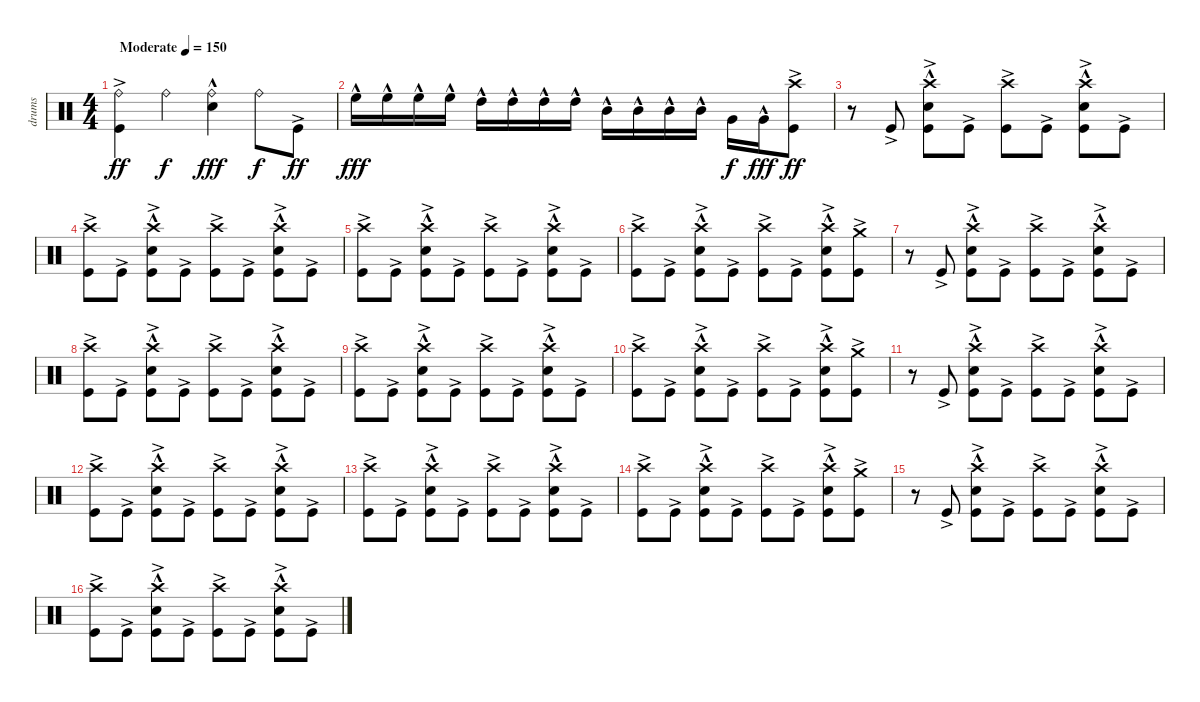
\track ("drums" "drums") {instrument percussion}
\staff {score}
\articulation defaults
\ts (4 4)
\tempo (150 "Moderate")
\clef neutral
\ks c
("Ride (bell)" "Kick (hit)"{ac}).4{dy ff} "Ride (bell)".4{dy f} ("Ride (bell)" "Snare (hit) 2"{hac}).4{dy fff} "Ride (bell)".8{dy f} "Kick (hit)"{ac}.8{dy ff} |
"High Floor Tom (hit)"{hac}.16{dy fff} "High Floor Tom (hit)"{hac}.16 "High Floor Tom (hit)"{hac}.16 "High Floor Tom (hit)"{hac}.16 "High Tom (hit)"{hac}.16 "High Tom (hit)"{hac}.16 "High Tom (hit)"{hac}.16 "High Tom (hit)"{hac}.16 "Mid Tom (hit)"{hac}.16 "Mid Tom (hit)"{hac}.16 "Mid Tom (hit)"{hac}.16 "Mid Tom (hit)"{hac}.16 "Very Low Tom (hit)".16{dy f} "Very Low Tom (hit)"{hac}.16{dy fff} ("Crash high (hit)" "Kick (hit)"{ac}).8{dy ff} |
r.8 "Kick (hit)"{ac}.8 ("Crash high (hit)" "Snare (hit) 2"{hac} "Kick (hit)"{ac}).8 "Kick (hit)"{ac}.8 ("Crash high (hit)" "Kick (hit)"{ac}).8 "Kick (hit)"{ac}.8 ("Crash high (hit)" "Snare (hit) 2"{hac} "Kick (hit)"{ac}).8 "Kick (hit)"{ac}.8 |
("Crash high (hit)" "Kick (hit)"{ac}).8 "Kick (hit)"{ac}.8 ("Crash high (hit)" "Snare (hit) 2"{hac} "Kick (hit)"{ac}).8 "Kick (hit)"{ac}.8 ("Crash high (hit)" "Kick (hit)"{ac}).8 "Kick (hit)"{ac}.8 ("Crash high (hit)" "Snare (hit) 2"{hac} "Kick (hit)"{ac}).8 "Kick (hit)"{ac}.8 |
("Crash high (hit)" "Kick (hit)"{ac}).8 "Kick (hit)"{ac}.8 ("Crash high (hit)" "Snare (hit) 2"{hac} "Kick (hit)"{ac}).8 "Kick (hit)"{ac}.8 ("Crash high (hit)" "Kick (hit)"{ac}).8 "Kick (hit)"{ac}.8 ("Crash high (hit)" "Snare (hit) 2"{hac} "Kick (hit)"{ac}).8 "Kick (hit)"{ac}.8 |
("Crash high (hit)" "Kick (hit)"{ac}).8 "Kick (hit)"{ac}.8 ("Crash high (hit)" "Snare (hit) 2"{hac} "Kick (hit)"{ac}).8 "Kick (hit)"{ac}.8 ("Crash high (hit)" "Kick (hit)"{ac}).8 "Kick (hit)"{ac}.8 ("Crash high (hit)" "Snare (hit) 2"{hac} "Kick (hit)"{ac}).8 ("Crash medium (hit)" "Kick (hit)"{ac}).8 |
r.8 "Kick (hit)"{ac}.8 ("Crash high (hit)" "Snare (hit) 2"{hac} "Kick (hit)"{ac}).8 "Kick (hit)"{ac}.8 ("Crash high (hit)" "Kick (hit)"{ac}).8 "Kick (hit)"{ac}.8 ("Crash high (hit)" "Snare (hit) 2"{hac} "Kick (hit)"{ac}).8 "Kick (hit)"{ac}.8 |
("Crash high (hit)" "Kick (hit)"{ac}).8 "Kick (hit)"{ac}.8 ("Crash high (hit)" "Snare (hit) 2"{hac} "Kick (hit)"{ac}).8 "Kick (hit)"{ac}.8 ("Crash high (hit)" "Kick (hit)"{ac}).8 "Kick (hit)"{ac}.8 ("Crash high (hit)" "Snare (hit) 2"{hac} "Kick (hit)"{ac}).8 "Kick (hit)"{ac}.8 |
("Crash high (hit)" "Kick (hit)"{ac}).8 "Kick (hit)"{ac}.8 ("Crash high (hit)" "Snare (hit) 2"{hac} "Kick (hit)"{ac}).8 "Kick (hit)"{ac}.8 ("Crash high (hit)" "Kick (hit)"{ac}).8 "Kick (hit)"{ac}.8 ("Crash high (hit)" "Snare (hit) 2"{hac} "Kick (hit)"{ac}).8 "Kick (hit)"{ac}.8 |
("Crash high (hit)" "Kick (hit)"{ac}).8 "Kick (hit)"{ac}.8 ("Crash high (hit)" "Snare (hit) 2"{hac} "Kick (hit)"{ac}).8 "Kick (hit)"{ac}.8 ("Crash high (hit)" "Kick (hit)"{ac}).8 "Kick (hit)"{ac}.8 ("Crash high (hit)" "Snare (hit) 2"{hac} "Kick (hit)"{ac}).8 ("Crash medium (hit)" "Kick (hit)"{ac}).8 |
r.8 "Kick (hit)"{ac}.8 ("Crash high (hit)" "Snare (hit) 2"{hac} "Kick (hit)"{ac}).8 "Kick (hit)"{ac}.8 ("Crash high (hit)" "Kick (hit)"{ac}).8 "Kick (hit)"{ac}.8 ("Crash high (hit)" "Snare (hit) 2"{hac} "Kick (hit)"{ac}).8 "Kick (hit)"{ac}.8 |
("Crash high (hit)" "Kick (hit)"{ac}).8 "Kick (hit)"{ac}.8 ("Crash high (hit)" "Snare (hit) 2"{hac} "Kick (hit)"{ac}).8 "Kick (hit)"{ac}.8 ("Crash high (hit)" "Kick (hit)"{ac}).8 "Kick (hit)"{ac}.8 ("Crash high (hit)" "Snare (hit) 2"{hac} "Kick (hit)"{ac}).8 "Kick (hit)"{ac}.8 |
("Crash high (hit)" "Kick (hit)"{ac}).8 "Kick (hit)"{ac}.8 ("Crash high (hit)" "Snare (hit) 2"{hac} "Kick (hit)"{ac}).8 "Kick (hit)"{ac}.8 ("Crash high (hit)" "Kick (hit)"{ac}).8 "Kick (hit)"{ac}.8 ("Crash high (hit)" "Snare (hit) 2"{hac} "Kick (hit)"{ac}).8 "Kick (hit)"{ac}.8 |
("Crash high (hit)" "Kick (hit)"{ac}).8 "Kick (hit)"{ac}.8 ("Crash high (hit)" "Snare (hit) 2"{hac} "Kick (hit)"{ac}).8 "Kick (hit)"{ac}.8 ("Crash high (hit)" "Kick (hit)"{ac}).8 "Kick (hit)"{ac}.8 ("Crash high (hit)" "Snare (hit) 2"{hac} "Kick (hit)"{ac}).8 ("Crash medium (hit)" "Kick (hit)"{ac}).8 |
r.8 "Kick (hit)"{ac}.8 ("Crash high (hit)" "Snare (hit) 2"{hac} "Kick (hit)"{ac}).8 "Kick (hit)"{ac}.8 ("Crash high (hit)" "Kick (hit)"{ac}).8 "Kick (hit)"{ac}.8 ("Crash high (hit)" "Snare (hit) 2"{hac} "Kick (hit)"{ac}).8 "Kick (hit)"{ac}.8 |
("Crash high (hit)" "Kick (hit)"{ac}).8 "Kick (hit)"{ac}.8 ("Crash high (hit)" "Snare (hit) 2"{hac} "Kick (hit)"{ac}).8 "Kick (hit)"{ac}.8 ("Crash high (hit)" "Kick (hit)"{ac}).8 "Kick (hit)"{ac}.8 ("Crash high (hit)" "Snare (hit) 2"{hac} "Kick (hit)"{ac}).8 "Kick (hit)"{ac}.8
